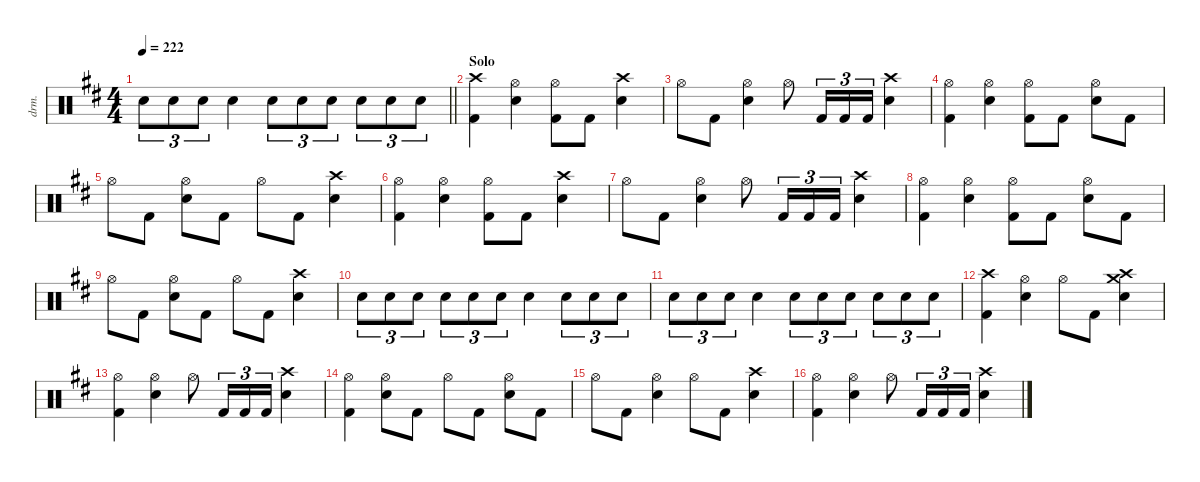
\defaultSystemsLayout 4
\hideDynamics
\bracketExtendMode nobrackets
\otherSystemsTrackNameOrientation horizontal
\track ("Lars Ulrich" "drm.") {defaultSystemsLayout 4 instrument percussion}
\staff {score}
\articulation defaults
\ts (4 4)
\tempo 222
\clef neutral
\barLineRight lightlight
\ks bminor "Snare (hit) 2"{acc forcenatural}.8{tu (3 2) dy f beam Down} "Snare (hit) 2"{acc forcenatural}.8{tu (3 2) beam Down} "Snare (hit) 2"{acc forcenatural}.8{tu (3 2) beam Down} "Snare (hit) 2"{acc forcenatural}.4{beam Down} "Snare (hit) 2"{acc forcenatural}.8{tu (3 2) beam Down} "Snare (hit) 2"{acc forcenatural}.8{tu (3 2) beam Down} "Snare (hit) 2"{acc forcenatural}.8{tu (3 2) beam Down} "Snare (hit) 2"{acc forcenatural}.8{tu (3 2) beam Down} "Snare (hit) 2"{acc forcenatural}.8{tu (3 2) beam Down} "Snare (hit) 2"{acc forcenatural}.8{tu (3 2) beam Down}
|
\section ("" "Solo")
("Crash high (hit)"{acc forcenatural} "Kick (hit) 2"{acc forcenatural}).4{beam Down} ("Hi-Hat (open)"{acc forcenatural} "Snare (hit) 2"{acc forcenatural}).4{beam Down} ("Hi-Hat (open)"{acc forcenatural} "Kick (hit) 2"{acc forcenatural}).8{beam Down} "Kick (hit) 2"{acc forcenatural}.8{beam Down} ("Crash high (hit)"{acc forcenatural} "Snare (hit) 2"{acc forcenatural}).4{beam Down} |
"Hi-Hat (open)"{acc forcenatural}.8{beam Down} "Kick (hit) 2"{acc forcenatural}.8{beam Down} ("Hi-Hat (open)"{acc forcenatural} "Snare (hit) 2"{acc forcenatural}).4{beam Down} "Hi-Hat (open)"{acc forcenatural}.8{beam Down} "Kick (hit) 2"{acc forcenatural}.16{tu (3 2) beam Up} "Kick (hit) 2"{acc forcenatural}.16{tu (3 2) beam Up} "Kick (hit) 2"{acc forcenatural}.16{tu (3 2) beam Up} ("Crash high (hit)"{acc forcenatural} "Snare (hit) 2"{acc forcenatural}).4{beam Down} |
("Hi-Hat (open)"{acc forcenatural} "Kick (hit) 2"{acc forcenatural}).4{beam Down} ("Hi-Hat (open)"{acc forcenatural} "Snare (hit) 2"{acc forcenatural}).4{beam Down} ("Hi-Hat (open)"{acc forcenatural} "Kick (hit) 2"{acc forcenatural}).8{beam Down} "Kick (hit) 2"{acc forcenatural}.8{beam Down} ("Hi-Hat (open)"{acc forcenatural} "Snare (hit) 2"{acc forcenatural}).8{beam Down} "Kick (hit) 2"{acc forcenatural}.8{beam Down} |
"Hi-Hat (open)"{acc forcenatural}.8{beam Down} "Kick (hit) 2"{acc forcenatural}.8{beam Down} ("Hi-Hat (open)"{acc forcenatural} "Snare (hit) 2"{acc forcenatural}).8{beam Down} "Kick (hit) 2"{acc forcenatural}.8{beam Down} "Hi-Hat (open)"{acc forcenatural}.8{beam Down} "Kick (hit) 2"{acc forcenatural}.8{beam Down} ("Crash high (hit)"{acc forcenatural} "Snare (hit) 2"{acc forcenatural}).4{beam Down} |
("Hi-Hat (open)"{acc forcenatural} "Kick (hit) 2"{acc forcenatural}).4{beam Down} ("Hi-Hat (open)"{acc forcenatural} "Snare (hit) 2"{acc forcenatural}).4{beam Down} ("Hi-Hat (open)"{acc forcenatural} "Kick (hit) 2"{acc forcenatural}).8{beam Down} "Kick (hit) 2"{acc forcenatural}.8{beam Down} ("Crash high (hit)"{acc forcenatural} "Snare (hit) 2"{acc forcenatural}).4{beam Down} |
"Hi-Hat (open)"{acc forcenatural}.8{beam Down} "Kick (hit) 2"{acc forcenatural}.8{beam Down} ("Hi-Hat (open)"{acc forcenatural} "Snare (hit) 2"{acc forcenatural}).4{beam Down} "Hi-Hat (open)"{acc forcenatural}.8{beam Down} "Kick (hit) 2"{acc forcenatural}.16{tu (3 2) beam Up} "Kick (hit) 2"{acc forcenatural}.16{tu (3 2) beam Up} "Kick (hit) 2"{acc forcenatural}.16{tu (3 2) beam Up} ("Crash high (hit)"{acc forcenatural} "Snare (hit) 2"{acc forcenatural}).4{beam Down} |
("Hi-Hat (open)"{acc forcenatural} "Kick (hit) 2"{acc forcenatural}).4{beam Down} ("Hi-Hat (open)"{acc forcenatural} "Snare (hit) 2"{acc forcenatural}).4{beam Down} ("Hi-Hat (open)"{acc forcenatural} "Kick (hit) 2"{acc forcenatural}).8{beam Down} "Kick (hit) 2"{acc forcenatural}.8{beam Down} ("Hi-Hat (open)"{acc forcenatural} "Snare (hit) 2"{acc forcenatural}).8{beam Down} "Kick (hit) 2"{acc forcenatural}.8{beam Down} |
"Hi-Hat (open)"{acc forcenatural}.8{beam Down} "Kick (hit) 2"{acc forcenatural}.8{beam Down} ("Hi-Hat (open)"{acc forcenatural} "Snare (hit) 2"{acc forcenatural}).8{beam Down} "Kick (hit) 2"{acc forcenatural}.8{beam Down} "Hi-Hat (open)"{acc forcenatural}.8{beam Down} "Kick (hit) 2"{acc forcenatural}.8{beam Down} ("Crash high (hit)"{acc forcenatural} "Snare (hit) 2"{acc forcenatural}).4{beam Down} |
"Snare (hit) 2"{acc forcenatural}.8{tu (3 2) beam Down} "Snare (hit) 2"{acc forcenatural}.8{tu (3 2) beam Down} "Snare (hit) 2"{acc forcenatural}.8{tu (3 2) beam Down} "Snare (hit) 2"{acc forcenatural}.8{tu (3 2) beam Down} "Snare (hit) 2"{acc forcenatural}.8{tu (3 2) beam Down} "Snare (hit) 2"{acc forcenatural}.8{tu (3 2) beam Down} "Snare (hit) 2"{acc forcenatural}.4{beam Down} "Snare (hit) 2"{acc forcenatural}.8{tu (3 2) beam Down} "Snare (hit) 2"{acc forcenatural}.8{tu (3 2) beam Down} "Snare (hit) 2"{acc forcenatural}.8{tu (3 2) beam Down} |
"Snare (hit) 2"{acc forcenatural}.8{tu (3 2) beam Down} "Snare (hit) 2"{acc forcenatural}.8{tu (3 2) beam Down} "Snare (hit) 2"{acc forcenatural}.8{tu (3 2) beam Down} "Snare (hit) 2"{acc forcenatural}.4{beam Down} "Snare (hit) 2"{acc forcenatural}.8{tu (3 2) beam Down} "Snare (hit) 2"{acc forcenatural}.8{tu (3 2) beam Down} "Snare (hit) 2"{acc forcenatural}.8{tu (3 2) beam Down} "Snare (hit) 2"{acc forcenatural}.8{tu (3 2) beam Down} "Snare (hit) 2"{acc forcenatural}.8{tu (3 2) beam Down} "Snare (hit) 2"{acc forcenatural}.8{tu (3 2) beam Down} |
("Crash high (hit)"{acc forcenatural} "Kick (hit) 2"{acc forcenatural}).4{beam Down} ("Hi-Hat (open)"{acc forcenatural} "Snare (hit) 2"{acc forcenatural}).4{beam Down} "Hi-Hat (open)"{acc forcenatural}.8{beam Down} "Kick (hit) 2"{acc forcenatural}.8{beam Down} ("Crash high (hit)"{acc forcenatural} "Crash medium (hit)"{acc forcenatural} "Snare (hit) 2"{acc forcenatural}).4{beam Down} |
("Hi-Hat (open)"{acc forcenatural} "Kick (hit) 2"{acc forcenatural}).4{beam Down} ("Hi-Hat (open)"{acc forcenatural} "Snare (hit) 2"{acc forcenatural}).4{beam Down} "Hi-Hat (open)"{acc forcenatural}.8{beam Down} "Kick (hit) 2"{acc forcenatural}.16{tu (3 2) beam Up} "Kick (hit) 2"{acc forcenatural}.16{tu (3 2) beam Up} "Kick (hit) 2"{acc forcenatural}.16{tu (3 2) beam Up} ("Crash high (hit)"{acc forcenatural} "Snare (hit) 2"{acc forcenatural}).4{beam Down} |
("Hi-Hat (open)"{acc forcenatural} "Kick (hit) 2"{acc forcenatural}).4{beam Down} ("Hi-Hat (open)"{acc forcenatural} "Snare (hit) 2"{acc forcenatural}).8{beam Down} "Kick (hit) 2"{acc forcenatural}.8{beam Down} "Hi-Hat (open)"{acc forcenatural}.8{beam Down} "Kick (hit) 2"{acc forcenatural}.8{beam Down} ("Hi-Hat (open)"{acc forcenatural} "Snare (hit) 2"{acc forcenatural}).8{beam Down} "Kick (hit) 2"{acc forcenatural}.8{beam Down} |
"Hi-Hat (open)"{acc forcenatural}.8{beam Down} "Kick (hit) 2"{acc forcenatural}.8{beam Down} ("Hi-Hat (open)"{acc forcenatural} "Snare (hit) 2"{acc forcenatural}).4{beam Down} "Hi-Hat (open)"{acc forcenatural}.8{beam Down} "Kick (hit) 2"{acc forcenatural}.8{beam Down} ("Crash high (hit)"{acc forcenatural} "Snare (hit) 2"{acc forcenatural}).4{beam Down} |
("Hi-Hat (open)"{acc forcenatural} "Kick (hit) 2"{acc forcenatural}).4{beam Down} ("Hi-Hat (open)"{acc forcenatural} "Snare (hit) 2"{acc forcenatural}).4{beam Down} "Hi-Hat (open)"{acc forcenatural}.8{beam Down} "Kick (hit) 2"{acc forcenatural}.16{tu (3 2) beam Up} "Kick (hit) 2"{acc forcenatural}.16{tu (3 2) beam Up} "Kick (hit) 2"{acc forcenatural}.16{tu (3 2) beam Up} ("Crash high (hit)"{acc forcenatural} "Snare (hit) 2"{acc forcenatural}).4{beam Down}
